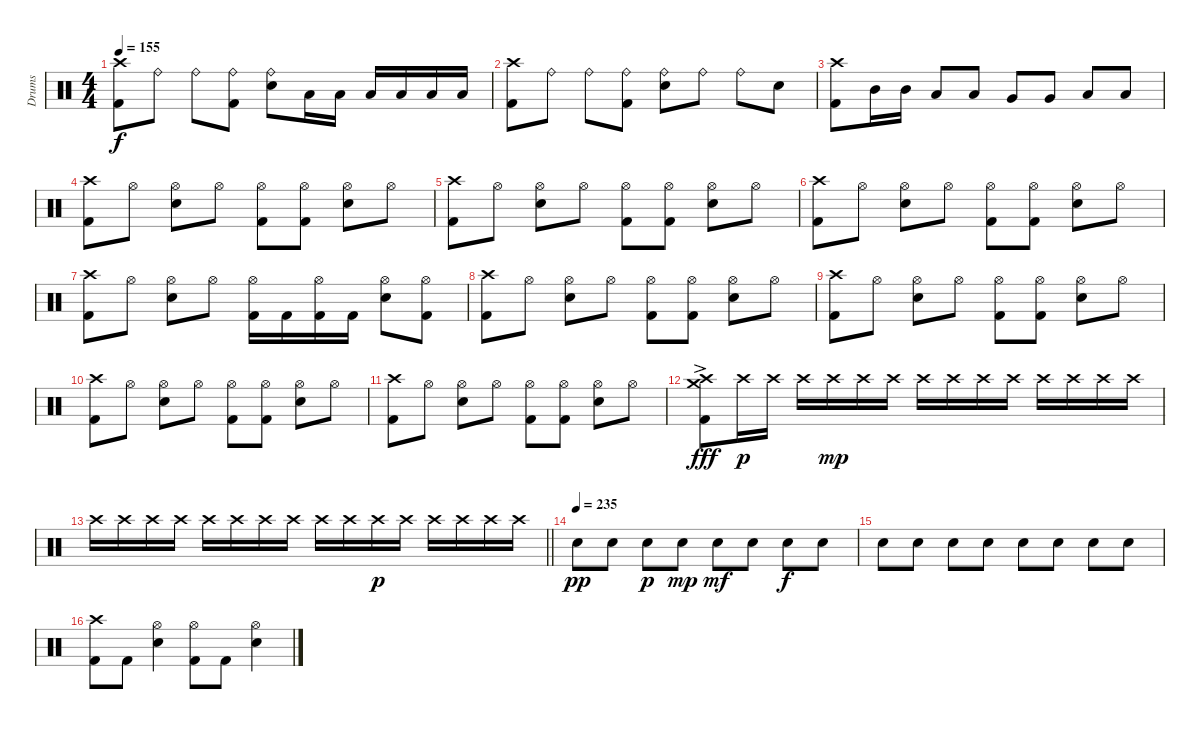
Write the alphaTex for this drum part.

\track ("Drums" "Drums") {instrument percussion}
\staff {score}
\articulation defaults
\ts (4 4)
\tempo 155
\clef neutral
\ks c
("Crash high (hit)" "Kick (hit) 2").8{dy f} "Ride (bell)".8 "Ride (bell)".8 ("Ride (bell)" "Kick (hit) 2").8 ("Ride (bell)" "Snare (hit) 2").8 "Low Tom (hit)".16 "Low Tom (hit)".16 "Low Tom (hit)".16 "Low Tom (hit)".16 "Low Tom (hit)".16 "Low Tom (hit)".16 |
("Crash high (hit)" "Kick (hit) 2").8 "Ride (bell)".8 "Ride (bell)".8 ("Ride (bell)" "Kick (hit) 2").8 ("Ride (bell)" "Snare (hit) 2").8 "Ride (bell)".8 "Ride (bell)".8 "Snare (hit) 2".8 |
("Crash high (hit)" "Kick (hit) 2").8 "Mid Tom (hit)".16 "Mid Tom (hit)".16 "Low Tom (hit)".8 "Low Tom (hit)".8 "Very Low Tom (hit)".8 "Very Low Tom (hit)".8 "Low Floor Tom (hit)".8 "Low Floor Tom (hit)".8 |
("Crash high (hit)" "Kick (hit) 2").8 "Hi-Hat (open)".8 ("Hi-Hat (open)" "Snare (hit) 2").8 "Hi-Hat (open)".8 ("Hi-Hat (open)" "Kick (hit) 2").8 ("Hi-Hat (open)" "Kick (hit) 2").8 ("Hi-Hat (open)" "Snare (hit) 2").8 "Hi-Hat (open)".8 |
("Crash high (hit)" "Kick (hit) 2").8 "Hi-Hat (open)".8 ("Hi-Hat (open)" "Snare (hit) 2").8 "Hi-Hat (open)".8 ("Hi-Hat (open)" "Kick (hit) 2").8 ("Hi-Hat (open)" "Kick (hit) 2").8 ("Hi-Hat (open)" "Snare (hit) 2").8 "Hi-Hat (open)".8 |
("Crash high (hit)" "Kick (hit) 2").8 "Hi-Hat (open)".8 ("Hi-Hat (open)" "Snare (hit) 2").8 "Hi-Hat (open)".8 ("Hi-Hat (open)" "Kick (hit) 2").8 ("Hi-Hat (open)" "Kick (hit) 2").8 ("Hi-Hat (open)" "Snare (hit) 2").8 "Hi-Hat (open)".8 |
("Crash high (hit)" "Kick (hit) 2").8 "Hi-Hat (open)".8 ("Hi-Hat (open)" "Snare (hit) 2").8 "Hi-Hat (open)".8 ("Hi-Hat (open)" "Kick (hit) 2").16 "Kick (hit) 2".16 ("Hi-Hat (open)" "Kick (hit) 2").16 "Kick (hit) 2".16 ("Hi-Hat (open)" "Snare (hit) 2").8 ("Hi-Hat (open)" "Kick (hit) 2").8 |
("Crash high (hit)" "Kick (hit) 2").8 "Hi-Hat (open)".8 ("Hi-Hat (open)" "Snare (hit) 2").8 "Hi-Hat (open)".8 ("Hi-Hat (open)" "Kick (hit) 2").8 ("Hi-Hat (open)" "Kick (hit) 2").8 ("Hi-Hat (open)" "Snare (hit) 2").8 "Hi-Hat (open)".8 |
("Crash high (hit)" "Kick (hit) 2").8 "Hi-Hat (open)".8 ("Hi-Hat (open)" "Snare (hit) 2").8 "Hi-Hat (open)".8 ("Hi-Hat (open)" "Kick (hit) 2").8 ("Hi-Hat (open)" "Kick (hit) 2").8 ("Hi-Hat (open)" "Snare (hit) 2").8 "Hi-Hat (open)".8 |
("Crash high (hit)" "Kick (hit) 2").8 "Hi-Hat (open)".8 ("Hi-Hat (open)" "Snare (hit) 2").8 "Hi-Hat (open)".8 ("Hi-Hat (open)" "Kick (hit) 2").8 ("Hi-Hat (open)" "Kick (hit) 2").8 ("Hi-Hat (open)" "Snare (hit) 2").8 "Hi-Hat (open)".8 |
("Crash high (hit)" "Kick (hit) 2").8 "Hi-Hat (open)".8 ("Hi-Hat (open)" "Snare (hit) 2").8 "Hi-Hat (open)".8 ("Hi-Hat (open)" "Kick (hit) 2").8 ("Hi-Hat (open)" "Kick (hit) 2").8 ("Hi-Hat (open)" "Snare (hit) 2").8 "Hi-Hat (open)".8 |
("Crash high (hit)" "Crash medium (hit)" "Kick (hit) 2"{ac}).8{dy fff} "Crash high (hit)".16{dy p} "Crash high (hit)".16 "Crash high (hit)".16 "Crash high (hit)".16{dy mp} "Crash high (hit)".16 "Crash high (hit)".16 "Crash high (hit)".16 "Crash high (hit)".16 "Crash high (hit)".16 "Crash high (hit)".16 "Crash high (hit)".16 "Crash high (hit)".16 "Crash high (hit)".16 "Crash high (hit)".16 |
\barLineRight lightlight "Crash high (hit)".16 "Crash high (hit)".16 "Crash high (hit)".16 "Crash high (hit)".16 "Crash high (hit)".16 "Crash high (hit)".16 "Crash high (hit)".16 "Crash high (hit)".16 "Crash high (hit)".16 "Crash high (hit)".16 "Crash high (hit)".16{dy p} "Crash high (hit)".16 "Crash high (hit)".16 "Crash high (hit)".16 "Crash high (hit)".16 "Crash high (hit)".16
|
\tempo (235)
"Snare (hit) 2".8{dy pp} "Snare (hit) 2".8 "Snare (hit) 2".8{dy p} "Snare (hit) 2".8{dy mp} "Snare (hit) 2".8{dy mf} "Snare (hit) 2".8 "Snare (hit) 2".8{dy f} "Snare (hit) 2".8 |
"Snare (hit) 2".8 "Snare (hit) 2".8 "Snare (hit) 2".8 "Snare (hit) 2".8 "Snare (hit) 2".8 "Snare (hit) 2".8 "Snare (hit) 2".8 "Snare (hit) 2".8 |
("Crash high (hit)" "Kick (hit) 2").8 "Kick (hit) 2".8 ("Hi-Hat (open)" "Snare (hit) 2").4 ("Hi-Hat (open)" "Kick (hit) 2").8 "Kick (hit) 2".8 ("Hi-Hat (open)" "Snare (hit) 2").4
